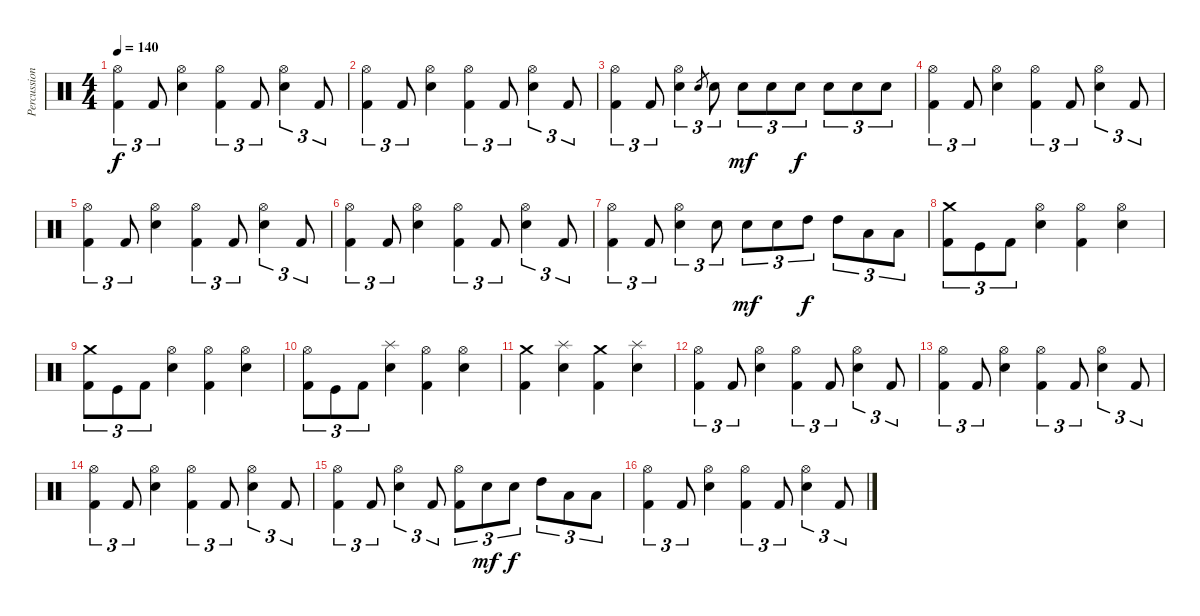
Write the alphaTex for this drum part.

\track ("Percussions" "Percussion") {instrument percussion}
\staff {score}
\articulation defaults
\ts (4 4)
\tempo 140
\clef neutral
\ks c
("Hi-Hat (open)" "Kick (hit) 2").4{tu (3 2) dy f} "Kick (hit) 2".8{tu (3 2)} ("Hi-Hat (open)" "Electric Snare (hit)").4 ("Hi-Hat (open)" "Kick (hit) 2").4{tu (3 2)} "Kick (hit) 2".8{tu (3 2)} ("Hi-Hat (open)" "Electric Snare (hit)").4{tu (3 2)} "Kick (hit) 2".8{tu (3 2)} |
("Hi-Hat (open)" "Kick (hit) 2").4{tu (3 2)} "Kick (hit) 2".8{tu (3 2)} ("Hi-Hat (open)" "Electric Snare (hit)").4 ("Hi-Hat (open)" "Kick (hit) 2").4{tu (3 2)} "Kick (hit) 2".8{tu (3 2)} ("Hi-Hat (open)" "Electric Snare (hit)").4{tu (3 2)} "Kick (hit) 2".8{tu (3 2)} |
("Hi-Hat (open)" "Kick (hit) 2").4{tu (3 2)} "Kick (hit) 2".8{tu (3 2)} ("Hi-Hat (open)" "Electric Snare (hit)").4{tu (3 2)} "Electric Snare (hit)".8{gr} "Electric Snare (hit)".8{tu (3 2)} "Electric Snare (hit)".8{tu (3 2) dy mf} "Electric Snare (hit)".8{tu (3 2)} "Electric Snare (hit)".8{tu (3 2) dy f} "Electric Snare (hit)".8{tu (3 2)} "Electric Snare (hit)".8{tu (3 2)} "Electric Snare (hit)".8{tu (3 2)} |
("Hi-Hat (open)" "Kick (hit) 2").4{tu (3 2)} "Kick (hit) 2".8{tu (3 2)} ("Hi-Hat (open)" "Electric Snare (hit)").4 ("Hi-Hat (open)" "Kick (hit) 2").4{tu (3 2)} "Kick (hit) 2".8{tu (3 2)} ("Hi-Hat (open)" "Electric Snare (hit)").4{tu (3 2)} "Kick (hit) 2".8{tu (3 2)} |
("Hi-Hat (open)" "Kick (hit) 2").4{tu (3 2)} "Kick (hit) 2".8{tu (3 2)} ("Hi-Hat (open)" "Electric Snare (hit)").4 ("Hi-Hat (open)" "Kick (hit) 2").4{tu (3 2)} "Kick (hit) 2".8{tu (3 2)} ("Hi-Hat (open)" "Electric Snare (hit)").4{tu (3 2)} "Kick (hit) 2".8{tu (3 2)} |
("Hi-Hat (open)" "Kick (hit) 2").4{tu (3 2)} "Kick (hit) 2".8{tu (3 2)} ("Hi-Hat (open)" "Electric Snare (hit)").4 ("Hi-Hat (open)" "Kick (hit) 2").4{tu (3 2)} "Kick (hit) 2".8{tu (3 2)} ("Hi-Hat (open)" "Electric Snare (hit)").4{tu (3 2)} "Kick (hit) 2".8{tu (3 2)} |
("Hi-Hat (open)" "Kick (hit) 2").4{tu (3 2)} "Kick (hit) 2".8{tu (3 2)} ("Hi-Hat (open)" "Electric Snare (hit)").4{tu (3 2)} "Electric Snare (hit)".8{tu (3 2)} "Electric Snare (hit)".8{tu (3 2) dy mf} "Electric Snare (hit)".8{tu (3 2)} "High Tom (hit)".8{tu (3 2) dy f} "High Tom (hit)".8{tu (3 2)} "Low Tom (hit)".8{tu (3 2)} "Low Tom (hit)".8{tu (3 2)} |
("Crash medium (hit)" "Kick (hit) 2").8{tu (3 2)} "Kick (hit)".8{tu (3 2)} "Kick (hit) 2".8{tu (3 2)} ("Hi-Hat (open)" "Electric Snare (hit)").4 ("Hi-Hat (open)" "Kick (hit) 2").4 ("Hi-Hat (open)" "Electric Snare (hit)").4 |
("Crash medium (hit)" "Kick (hit) 2").8{tu (3 2)} "Kick (hit)".8{tu (3 2)} "Kick (hit) 2".8{tu (3 2)} ("Hi-Hat (open)" "Electric Snare (hit)").4 ("Hi-Hat (open)" "Kick (hit) 2").4 ("Hi-Hat (open)" "Electric Snare (hit)").4 |
("Hi-Hat (open)" "Kick (hit) 2").8{tu (3 2)} "Kick (hit)".8{tu (3 2)} "Kick (hit) 2".8{tu (3 2)} ("Splash (hit)" "Electric Snare (hit)").4 ("Hi-Hat (open)" "Kick (hit) 2").4 ("Hi-Hat (open)" "Electric Snare (hit)").4 |
("Crash medium (hit)" "Kick (hit) 2").4 ("Splash (hit)" "Electric Snare (hit)").4 ("Crash medium (hit)" "Kick (hit) 2").4 ("Splash (hit)" "Electric Snare (hit)").4 |
("Hi-Hat (open)" "Kick (hit) 2").4{tu (3 2)} "Kick (hit) 2".8{tu (3 2)} ("Hi-Hat (open)" "Electric Snare (hit)").4 ("Hi-Hat (open)" "Kick (hit) 2").4{tu (3 2)} "Kick (hit) 2".8{tu (3 2)} ("Hi-Hat (open)" "Electric Snare (hit)").4{tu (3 2)} "Kick (hit) 2".8{tu (3 2)} |
("Hi-Hat (open)" "Kick (hit) 2").4{tu (3 2)} "Kick (hit) 2".8{tu (3 2)} ("Hi-Hat (open)" "Electric Snare (hit)").4 ("Hi-Hat (open)" "Kick (hit) 2").4{tu (3 2)} "Kick (hit) 2".8{tu (3 2)} ("Hi-Hat (open)" "Electric Snare (hit)").4{tu (3 2)} "Kick (hit) 2".8{tu (3 2)} |
("Hi-Hat (open)" "Kick (hit) 2").4{tu (3 2)} "Kick (hit) 2".8{tu (3 2)} ("Hi-Hat (open)" "Electric Snare (hit)").4 ("Hi-Hat (open)" "Kick (hit) 2").4{tu (3 2)} "Kick (hit) 2".8{tu (3 2)} ("Hi-Hat (open)" "Electric Snare (hit)").4{tu (3 2)} "Kick (hit) 2".8{tu (3 2)} |
("Hi-Hat (open)" "Kick (hit) 2").4{tu (3 2)} "Kick (hit) 2".8{tu (3 2)} ("Hi-Hat (open)" "Electric Snare (hit)").4{tu (3 2)} "Kick (hit) 2".8{tu (3 2)} ("Hi-Hat (open)" "Kick (hit) 2").8{tu (3 2)} "Electric Snare (hit)".8{tu (3 2) dy mf} "Electric Snare (hit)".8{tu (3 2) dy f} "High Tom (hit)".8{tu (3 2)} "Low Tom (hit)".8{tu (3 2)} "Low Tom (hit)".8{tu (3 2)} |
("Hi-Hat (open)" "Kick (hit) 2").4{tu (3 2)} "Kick (hit) 2".8{tu (3 2)} ("Hi-Hat (open)" "Electric Snare (hit)").4 ("Hi-Hat (open)" "Kick (hit) 2").4{tu (3 2)} "Kick (hit) 2".8{tu (3 2)} ("Hi-Hat (open)" "Electric Snare (hit)").4{tu (3 2)} "Kick (hit) 2".8{tu (3 2)}
